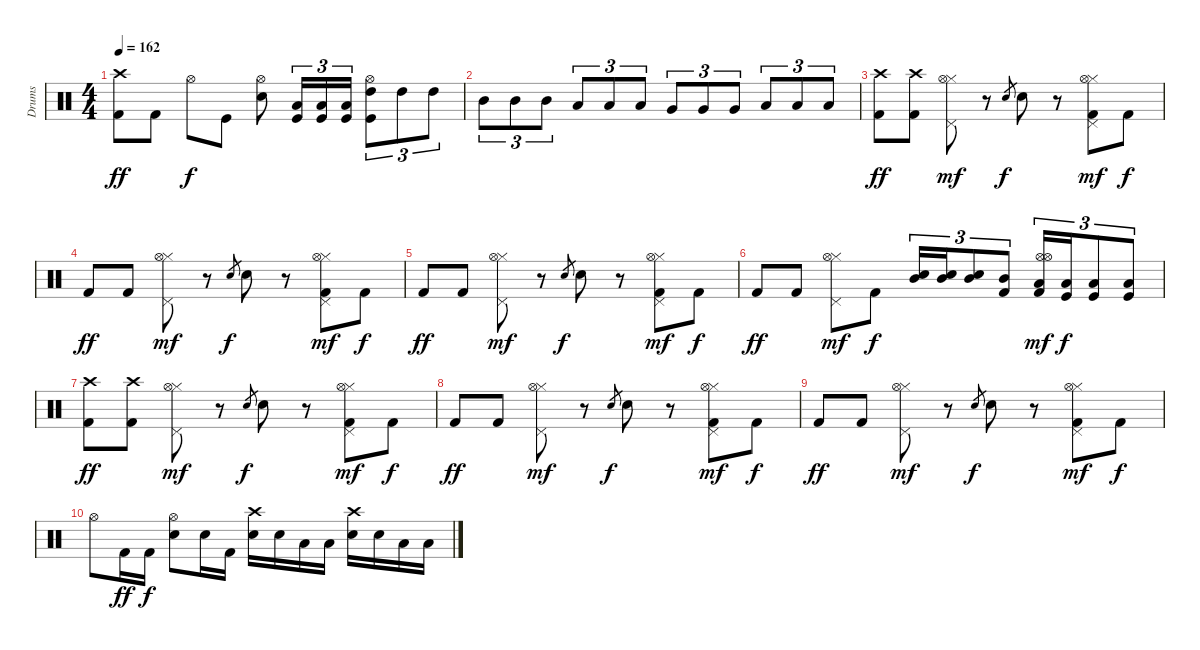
\track ("Drums" "Drums") {instrument percussion}
\staff {score}
\articulation defaults
\ts (4 4)
\tempo 162
\clef neutral
\ks c
("Crash high (hit)" "Kick (hit) 2").8{dy ff} "Kick (hit) 2".8 "Hi-Hat (open)".8{dy f} "Kick (hit)".8 ("Hi-Hat (open)" "Electric Snare (hit)").8 ("Low Floor Tom (hit)" "Kick (hit)").16{tu (3 2)} ("Low Floor Tom (hit)" "Kick (hit)").16{tu (3 2)} ("Low Floor Tom (hit)" "Kick (hit)").16{tu (3 2)} ("Hi-Hat (open)" "High Tom (hit)" "Kick (hit)").8{tu (3 2)} "High Tom (hit)".8{tu (3 2)} "High Tom (hit)".8{tu (3 2)} |
"Mid Tom (hit)".8{tu (3 2)} "Mid Tom (hit)".8{tu (3 2)} "Mid Tom (hit)".8{tu (3 2)} "Low Tom (hit)".8{tu (3 2)} "Low Tom (hit)".8{tu (3 2)} "Low Tom (hit)".8{tu (3 2)} "Very Low Tom (hit)".8{tu (3 2)} "Very Low Tom (hit)".8{tu (3 2)} "Very Low Tom (hit)".8{tu (3 2)} "Low Floor Tom (hit)".8{tu (3 2)} "Low Floor Tom (hit)".8{tu (3 2)} "Low Floor Tom (hit)".8{tu (3 2)} |
("Crash high (hit)" "Kick (hit) 2").8{dy ff} ("Crash high (hit)" "Kick (hit) 2").8 ("Pedal Hi-Hat (hit)" "Hi-Hat (closed)" "Hi-Hat (open)").8{dy mf} r.8 "Electric Snare (hit)".8{gr dy f} "Electric Snare (hit)".8 r.8 ("Pedal Hi-Hat (hit)" "Hi-Hat (closed)" "Hi-Hat (open)" "Kick (hit) 2").8{dy mf} "Kick (hit) 2".8{dy f} |
"Kick (hit) 2".8{dy ff} "Kick (hit) 2".8 ("Pedal Hi-Hat (hit)" "Hi-Hat (closed)" "Hi-Hat (open)").8{dy mf} r.8 "Electric Snare (hit)".8{gr dy f} "Electric Snare (hit)".8 r.8 ("Pedal Hi-Hat (hit)" "Hi-Hat (closed)" "Hi-Hat (open)" "Kick (hit) 2").8{dy mf} "Kick (hit) 2".8{dy f} |
"Kick (hit) 2".8{dy ff} "Kick (hit) 2".8 ("Pedal Hi-Hat (hit)" "Hi-Hat (closed)" "Hi-Hat (open)").8{dy mf} r.8 "Electric Snare (hit)".8{gr dy f} "Electric Snare (hit)".8 r.8 ("Pedal Hi-Hat (hit)" "Hi-Hat (closed)" "Hi-Hat (open)" "Kick (hit) 2").8{dy mf} "Kick (hit) 2".8{dy f} |
"Kick (hit) 2".8{dy ff} "Kick (hit) 2".8 ("Pedal Hi-Hat (hit)" "Hi-Hat (closed)" "Hi-Hat (open)").8{dy mf} "Kick (hit) 2".8{dy f} ("Mid Tom (hit)" "Snare (hit) 2").16{tu (3 2)} ("Mid Tom (hit)" "Snare (hit) 2").16{tu (3 2)} ("Mid Tom (hit)" "Snare (hit) 2").8{tu (3 2)} ("Mid Tom (hit)" "Kick (hit) 2").8{tu (3 2)} ("Hi-Hat (open)" "Hi-Hat (open)" "Low Tom (hit)" "Kick (hit) 2").16{tu (3 2) dy mf} ("Low Tom (hit)" "Kick (hit)").16{tu (3 2) dy f} ("Low Tom (hit)" "Kick (hit)").8{tu (3 2)} ("Low Tom (hit)" "Kick (hit)").8{tu (3 2)} |
("Crash high (hit)" "Kick (hit) 2").8{dy ff} ("Crash high (hit)" "Kick (hit) 2").8 ("Pedal Hi-Hat (hit)" "Hi-Hat (closed)" "Hi-Hat (open)").8{dy mf} r.8 "Electric Snare (hit)".8{gr dy f} "Electric Snare (hit)".8 r.8 ("Pedal Hi-Hat (hit)" "Hi-Hat (closed)" "Hi-Hat (open)" "Kick (hit) 2").8{dy mf} "Kick (hit) 2".8{dy f} |
"Kick (hit) 2".8{dy ff} "Kick (hit) 2".8 ("Pedal Hi-Hat (hit)" "Hi-Hat (closed)" "Hi-Hat (open)").8{dy mf} r.8 "Electric Snare (hit)".8{gr dy f} "Electric Snare (hit)".8 r.8 ("Pedal Hi-Hat (hit)" "Hi-Hat (closed)" "Hi-Hat (open)" "Kick (hit) 2").8{dy mf} "Kick (hit) 2".8{dy f} |
"Kick (hit) 2".8{dy ff} "Kick (hit) 2".8 ("Pedal Hi-Hat (hit)" "Hi-Hat (closed)" "Hi-Hat (open)").8{dy mf} r.8 "Electric Snare (hit)".8{gr dy f} "Electric Snare (hit)".8 r.8 ("Pedal Hi-Hat (hit)" "Hi-Hat (closed)" "Hi-Hat (open)" "Kick (hit) 2").8{dy mf} "Kick (hit) 2".8{dy f} |
"Hi-Hat (open)".8 "Kick (hit) 2".16{dy ff} "Kick (hit) 2".16{dy f} ("Hi-Hat (open)" "Electric Snare (hit)").8 "Snare (hit) 2".16 "Kick (hit) 2".16 ("Crash high (hit)" "Electric Snare (hit)").16 "Electric Snare (hit)".16 "Low Tom (hit)".16 "Low Tom (hit)".16 ("Crash high (hit)" "Electric Snare (hit)").16 "Electric Snare (hit)".16 "Low Tom (hit)".16 "Low Tom (hit)".16
